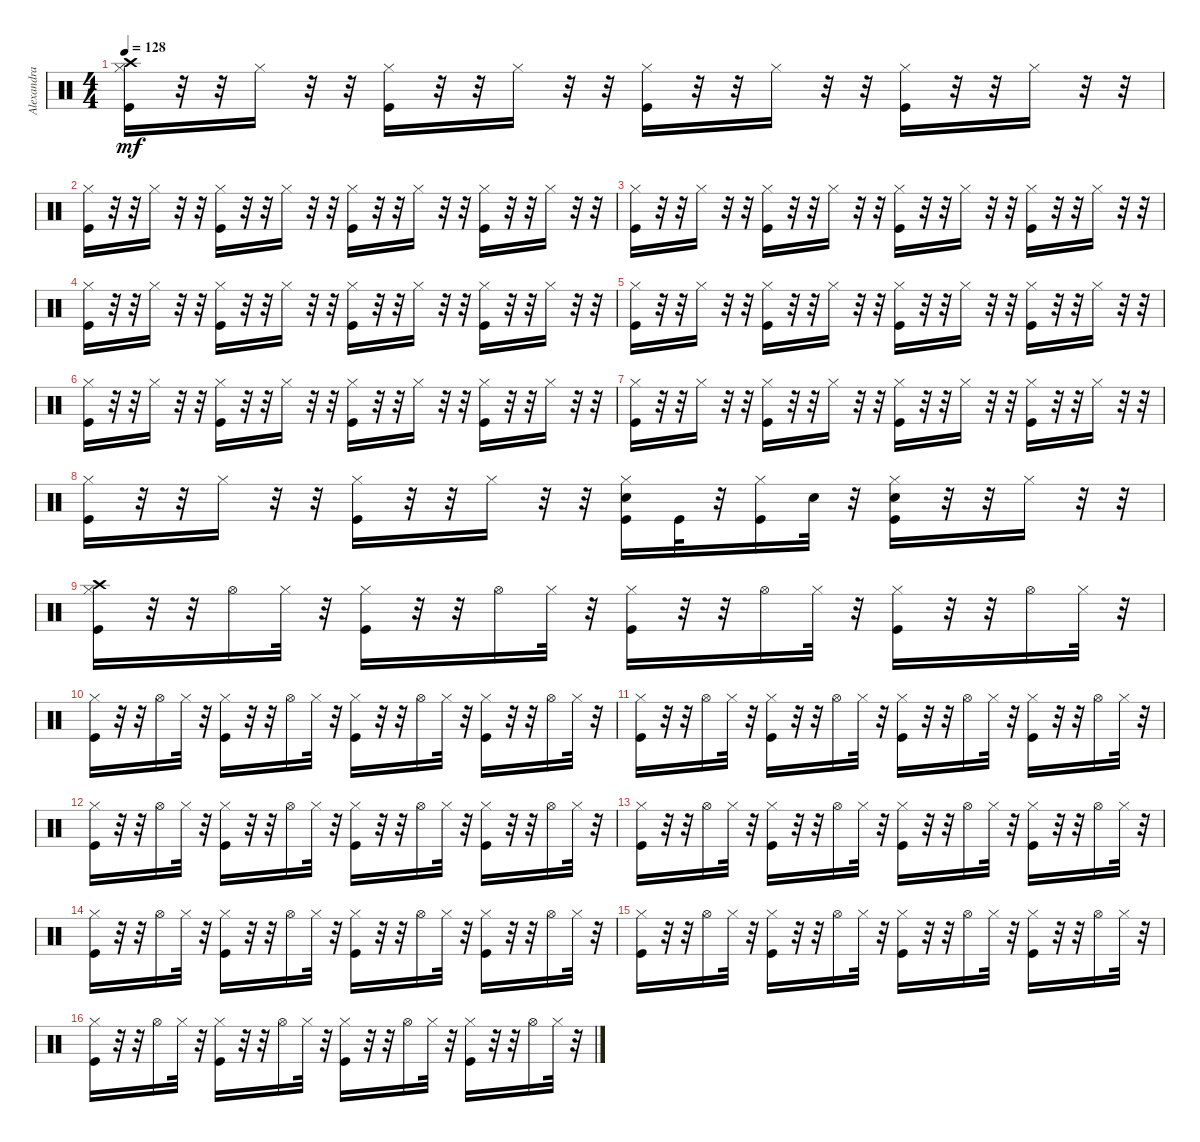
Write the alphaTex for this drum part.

\track ("Alexandra Stan - Mr Saxobeat" "Alexandra ") {instrument percussion}
\staff {score}
\articulation defaults
\ts (4 4)
\tempo 128
\clef neutral
\ks c
("Kick (hit)" "Hi-Hat (closed)" "Crash high (hit)").16{dy mf} r.32 r.32 "Hi-Hat (closed)".16 r.32 r.32 ("Kick (hit)" "Hi-Hat (closed)").16 r.32 r.32 "Hi-Hat (closed)".16 r.32 r.32 ("Kick (hit)" "Hi-Hat (closed)").16 r.32 r.32 "Hi-Hat (closed)".16 r.32 r.32 ("Kick (hit)" "Hi-Hat (closed)").16 r.32 r.32 "Hi-Hat (closed)".16 r.32 r.32 |
("Kick (hit)" "Hi-Hat (closed)").16 r.32 r.32 "Hi-Hat (closed)".16 r.32 r.32 ("Kick (hit)" "Hi-Hat (closed)").16 r.32 r.32 "Hi-Hat (closed)".16 r.32 r.32 ("Kick (hit)" "Hi-Hat (closed)").16 r.32 r.32 "Hi-Hat (closed)".16 r.32 r.32 ("Kick (hit)" "Hi-Hat (closed)").16 r.32 r.32 "Hi-Hat (closed)".16 r.32 r.32 |
("Kick (hit)" "Hi-Hat (closed)").16 r.32 r.32 "Hi-Hat (closed)".16 r.32 r.32 ("Kick (hit)" "Hi-Hat (closed)").16 r.32 r.32 "Hi-Hat (closed)".16 r.32 r.32 ("Kick (hit)" "Hi-Hat (closed)").16 r.32 r.32 "Hi-Hat (closed)".16 r.32 r.32 ("Kick (hit)" "Hi-Hat (closed)").16 r.32 r.32 "Hi-Hat (closed)".16 r.32 r.32 |
("Kick (hit)" "Hi-Hat (closed)").16 r.32 r.32 "Hi-Hat (closed)".16 r.32 r.32 ("Kick (hit)" "Hi-Hat (closed)").16 r.32 r.32 "Hi-Hat (closed)".16 r.32 r.32 ("Kick (hit)" "Hi-Hat (closed)").16 r.32 r.32 "Hi-Hat (closed)".16 r.32 r.32 ("Kick (hit)" "Hi-Hat (closed)").16 r.32 r.32 "Hi-Hat (closed)".16 r.32 r.32 |
("Kick (hit)" "Hi-Hat (closed)").16 r.32 r.32 "Hi-Hat (closed)".16 r.32 r.32 ("Kick (hit)" "Hi-Hat (closed)").16 r.32 r.32 "Hi-Hat (closed)".16 r.32 r.32 ("Kick (hit)" "Hi-Hat (closed)").16 r.32 r.32 "Hi-Hat (closed)".16 r.32 r.32 ("Kick (hit)" "Hi-Hat (closed)").16 r.32 r.32 "Hi-Hat (closed)".16 r.32 r.32 |
("Kick (hit)" "Hi-Hat (closed)").16 r.32 r.32 "Hi-Hat (closed)".16 r.32 r.32 ("Kick (hit)" "Hi-Hat (closed)").16 r.32 r.32 "Hi-Hat (closed)".16 r.32 r.32 ("Kick (hit)" "Hi-Hat (closed)").16 r.32 r.32 "Hi-Hat (closed)".16 r.32 r.32 ("Kick (hit)" "Hi-Hat (closed)").16 r.32 r.32 "Hi-Hat (closed)".16 r.32 r.32 |
("Kick (hit)" "Hi-Hat (closed)").16 r.32 r.32 "Hi-Hat (closed)".16 r.32 r.32 ("Kick (hit)" "Hi-Hat (closed)").16 r.32 r.32 "Hi-Hat (closed)".16 r.32 r.32 ("Kick (hit)" "Hi-Hat (closed)").16 r.32 r.32 "Hi-Hat (closed)".16 r.32 r.32 ("Kick (hit)" "Hi-Hat (closed)").16 r.32 r.32 "Hi-Hat (closed)".16 r.32 r.32 |
("Kick (hit)" "Hi-Hat (closed)").16 r.32 r.32 "Hi-Hat (closed)".16 r.32 r.32 ("Kick (hit)" "Hi-Hat (closed)").16 r.32 r.32 "Hi-Hat (closed)".16 r.32 r.32 ("Kick (hit)" "Snare (hit) 2" "Hi-Hat (closed)").16 "Kick (hit)".32 r.32 ("Kick (hit)" "Hi-Hat (closed)").16 "Snare (hit) 2".32 r.32 ("Kick (hit)" "Snare (hit) 2" "Hi-Hat (closed)").16 r.32 r.32 "Hi-Hat (closed)".16 r.32 r.32 |
("Kick (hit)" "Hi-Hat (closed)" "Crash high (hit)").16 r.32 r.32 "Hi-Hat (open)".16 "Hi-Hat (closed)".32 r.32 ("Kick (hit)" "Hi-Hat (closed)").16 r.32 r.32 "Hi-Hat (open)".16 "Hi-Hat (closed)".32 r.32 ("Kick (hit)" "Hi-Hat (closed)").16 r.32 r.32 "Hi-Hat (open)".16 "Hi-Hat (closed)".32 r.32 ("Kick (hit)" "Hi-Hat (closed)").16 r.32 r.32 "Hi-Hat (open)".16 "Hi-Hat (closed)".32 r.32 |
("Kick (hit)" "Hi-Hat (closed)").16 r.32 r.32 "Hi-Hat (open)".16 "Hi-Hat (closed)".32 r.32 ("Kick (hit)" "Hi-Hat (closed)").16 r.32 r.32 "Hi-Hat (open)".16 "Hi-Hat (closed)".32 r.32 ("Kick (hit)" "Hi-Hat (closed)").16 r.32 r.32 "Hi-Hat (open)".16 "Hi-Hat (closed)".32 r.32 ("Kick (hit)" "Hi-Hat (closed)").16 r.32 r.32 "Hi-Hat (open)".16 "Hi-Hat (closed)".32 r.32 |
("Kick (hit)" "Hi-Hat (closed)").16 r.32 r.32 "Hi-Hat (open)".16 "Hi-Hat (closed)".32 r.32 ("Kick (hit)" "Hi-Hat (closed)").16 r.32 r.32 "Hi-Hat (open)".16 "Hi-Hat (closed)".32 r.32 ("Kick (hit)" "Hi-Hat (closed)").16 r.32 r.32 "Hi-Hat (open)".16 "Hi-Hat (closed)".32 r.32 ("Kick (hit)" "Hi-Hat (closed)").16 r.32 r.32 "Hi-Hat (open)".16 "Hi-Hat (closed)".32 r.32 |
("Kick (hit)" "Hi-Hat (closed)").16 r.32 r.32 "Hi-Hat (open)".16 "Hi-Hat (closed)".32 r.32 ("Kick (hit)" "Hi-Hat (closed)").16 r.32 r.32 "Hi-Hat (open)".16 "Hi-Hat (closed)".32 r.32 ("Kick (hit)" "Hi-Hat (closed)").16 r.32 r.32 "Hi-Hat (open)".16 "Hi-Hat (closed)".32 r.32 ("Kick (hit)" "Hi-Hat (closed)").16 r.32 r.32 "Hi-Hat (open)".16 "Hi-Hat (closed)".32 r.32 |
("Kick (hit)" "Hi-Hat (closed)").16 r.32 r.32 "Hi-Hat (open)".16 "Hi-Hat (closed)".32 r.32 ("Kick (hit)" "Hi-Hat (closed)").16 r.32 r.32 "Hi-Hat (open)".16 "Hi-Hat (closed)".32 r.32 ("Kick (hit)" "Hi-Hat (closed)").16 r.32 r.32 "Hi-Hat (open)".16 "Hi-Hat (closed)".32 r.32 ("Kick (hit)" "Hi-Hat (closed)").16 r.32 r.32 "Hi-Hat (open)".16 "Hi-Hat (closed)".32 r.32 |
("Kick (hit)" "Hi-Hat (closed)").16 r.32 r.32 "Hi-Hat (open)".16 "Hi-Hat (closed)".32 r.32 ("Kick (hit)" "Hi-Hat (closed)").16 r.32 r.32 "Hi-Hat (open)".16 "Hi-Hat (closed)".32 r.32 ("Kick (hit)" "Hi-Hat (closed)").16 r.32 r.32 "Hi-Hat (open)".16 "Hi-Hat (closed)".32 r.32 ("Kick (hit)" "Hi-Hat (closed)").16 r.32 r.32 "Hi-Hat (open)".16 "Hi-Hat (closed)".32 r.32 |
("Kick (hit)" "Hi-Hat (closed)").16 r.32 r.32 "Hi-Hat (open)".16 "Hi-Hat (closed)".32 r.32 ("Kick (hit)" "Hi-Hat (closed)").16 r.32 r.32 "Hi-Hat (open)".16 "Hi-Hat (closed)".32 r.32 ("Kick (hit)" "Hi-Hat (closed)").16 r.32 r.32 "Hi-Hat (open)".16 "Hi-Hat (closed)".32 r.32 ("Kick (hit)" "Hi-Hat (closed)").16 r.32 r.32 "Hi-Hat (open)".16 "Hi-Hat (closed)".32 r.32 |
("Kick (hit)" "Hi-Hat (closed)").16 r.32 r.32 "Hi-Hat (open)".16 "Hi-Hat (closed)".32 r.32 ("Kick (hit)" "Hi-Hat (closed)").16 r.32 r.32 "Hi-Hat (open)".16 "Hi-Hat (closed)".32 r.32 ("Kick (hit)" "Hi-Hat (closed)").16 r.32 r.32 "Hi-Hat (open)".16 "Hi-Hat (closed)".32 r.32 ("Kick (hit)" "Hi-Hat (closed)").16 r.32 r.32 "Hi-Hat (open)".16 "Hi-Hat (closed)".32 r.32
